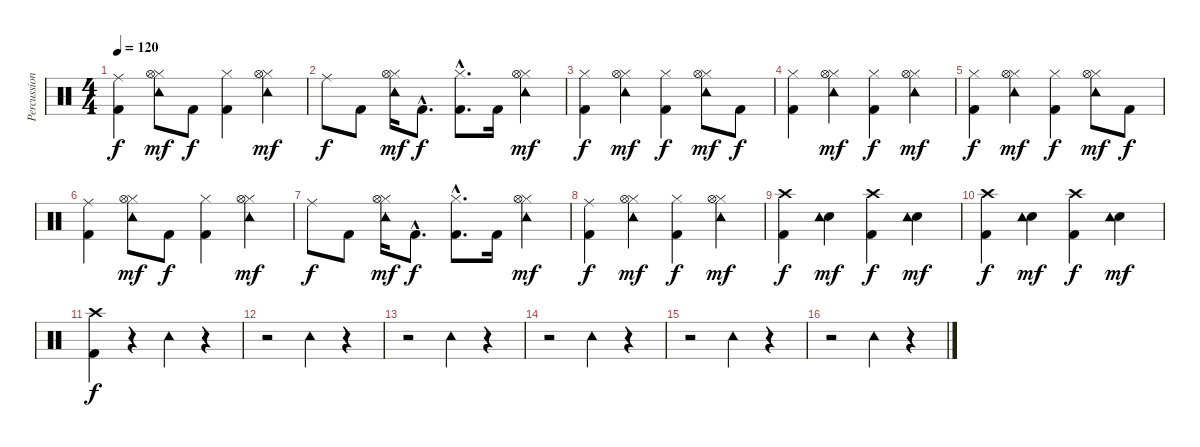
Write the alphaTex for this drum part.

\track ("Percussion" "Percussion") {instrument percussion}
\staff {score}
\articulation defaults
\ts (4 4)
\tempo 120
\clef neutral
\ks c
("Kick (hit) 2" "Ride (middle)").4{dy f} ("Hi-Hat (closed)" "Hi-Hat (open)" "Tambourine (hit)").8{dy mf} "Kick (hit) 2".8{dy f} ("Kick (hit) 2" "Hi-Hat (closed)").4 ("Hi-Hat (closed)" "Hi-Hat (open)" "Tambourine (hit)").4{dy mf} |
"Ride (middle)".8{dy f} "Kick (hit) 2".8 ("Hi-Hat (closed)" "Hi-Hat (open)" "Tambourine (hit)").16{dy mf} "Kick (hit) 2"{hac}.8{d dy f} ("Kick (hit) 2"{hac} "Hi-Hat (closed)"{hac}).8{d} "Kick (hit) 2".16 ("Hi-Hat (closed)" "Hi-Hat (open)" "Tambourine (hit)").4{dy mf} |
("Kick (hit) 2" "Hi-Hat (closed)").4{dy f} ("Hi-Hat (closed)" "Hi-Hat (open)" "Tambourine (hit)").4{dy mf} ("Kick (hit) 2" "Hi-Hat (closed)").4{dy f} ("Hi-Hat (closed)" "Hi-Hat (open)" "Tambourine (hit)").8{dy mf} "Kick (hit) 2".8{dy f} |
("Kick (hit) 2" "Hi-Hat (closed)").4 ("Hi-Hat (closed)" "Hi-Hat (open)" "Tambourine (hit)").4{dy mf} ("Kick (hit) 2" "Hi-Hat (closed)").4{dy f} ("Hi-Hat (closed)" "Hi-Hat (open)" "Tambourine (hit)").4{dy mf} |
("Kick (hit) 2" "Hi-Hat (closed)").4{dy f} ("Hi-Hat (closed)" "Hi-Hat (open)" "Tambourine (hit)").4{dy mf} ("Kick (hit) 2" "Hi-Hat (closed)").4{dy f} ("Hi-Hat (closed)" "Hi-Hat (open)" "Tambourine (hit)").8{dy mf} "Kick (hit) 2".8{dy f} |
("Kick (hit) 2" "Ride (middle)").4 ("Hi-Hat (closed)" "Hi-Hat (open)" "Tambourine (hit)").8{dy mf} "Kick (hit) 2".8{dy f} ("Kick (hit) 2" "Hi-Hat (closed)").4 ("Hi-Hat (closed)" "Hi-Hat (open)" "Tambourine (hit)").4{dy mf} |
"Ride (middle)".8{dy f} "Kick (hit) 2".8 ("Hi-Hat (closed)" "Hi-Hat (open)" "Tambourine (hit)").16{dy mf} "Kick (hit) 2"{hac}.8{d dy f} ("Kick (hit) 2"{hac} "Hi-Hat (closed)"{hac}).8{d} "Kick (hit) 2".16 ("Hi-Hat (closed)" "Hi-Hat (open)" "Tambourine (hit)").4{dy mf} |
("Kick (hit) 2" "Ride (middle)").4{dy f} ("Hi-Hat (closed)" "Hi-Hat (open)" "Tambourine (hit)").4{dy mf} ("Kick (hit) 2" "Hi-Hat (closed)").4{dy f} ("Hi-Hat (closed)" "Hi-Hat (open)" "Tambourine (hit)").4{dy mf} |
("Kick (hit) 2" "Crash high (hit)").4{dy f} ("Snare (hit) 2" "Tambourine (hit)").4{dy mf} ("Kick (hit) 2" "Crash high (hit)").4{dy f} ("Snare (hit) 2" "Tambourine (hit)").4{dy mf} |
("Kick (hit) 2" "Crash high (hit)").4{dy f} ("Snare (hit) 2" "Tambourine (hit)").4{dy mf} ("Kick (hit) 2" "Crash high (hit)").4{dy f} ("Snare (hit) 2" "Tambourine (hit)").4{dy mf} |
("Kick (hit) 2" "Crash high (hit)").4{dy f} r.4 "Tambourine (hit)".4 r.4 |
r.2 "Tambourine (hit)".4 r.4 |
r.2 "Tambourine (hit)".4 r.4 |
r.2 "Tambourine (hit)".4 r.4 |
r.2 "Tambourine (hit)".4 r.4 |
r.2 "Tambourine (hit)".4 r.4
